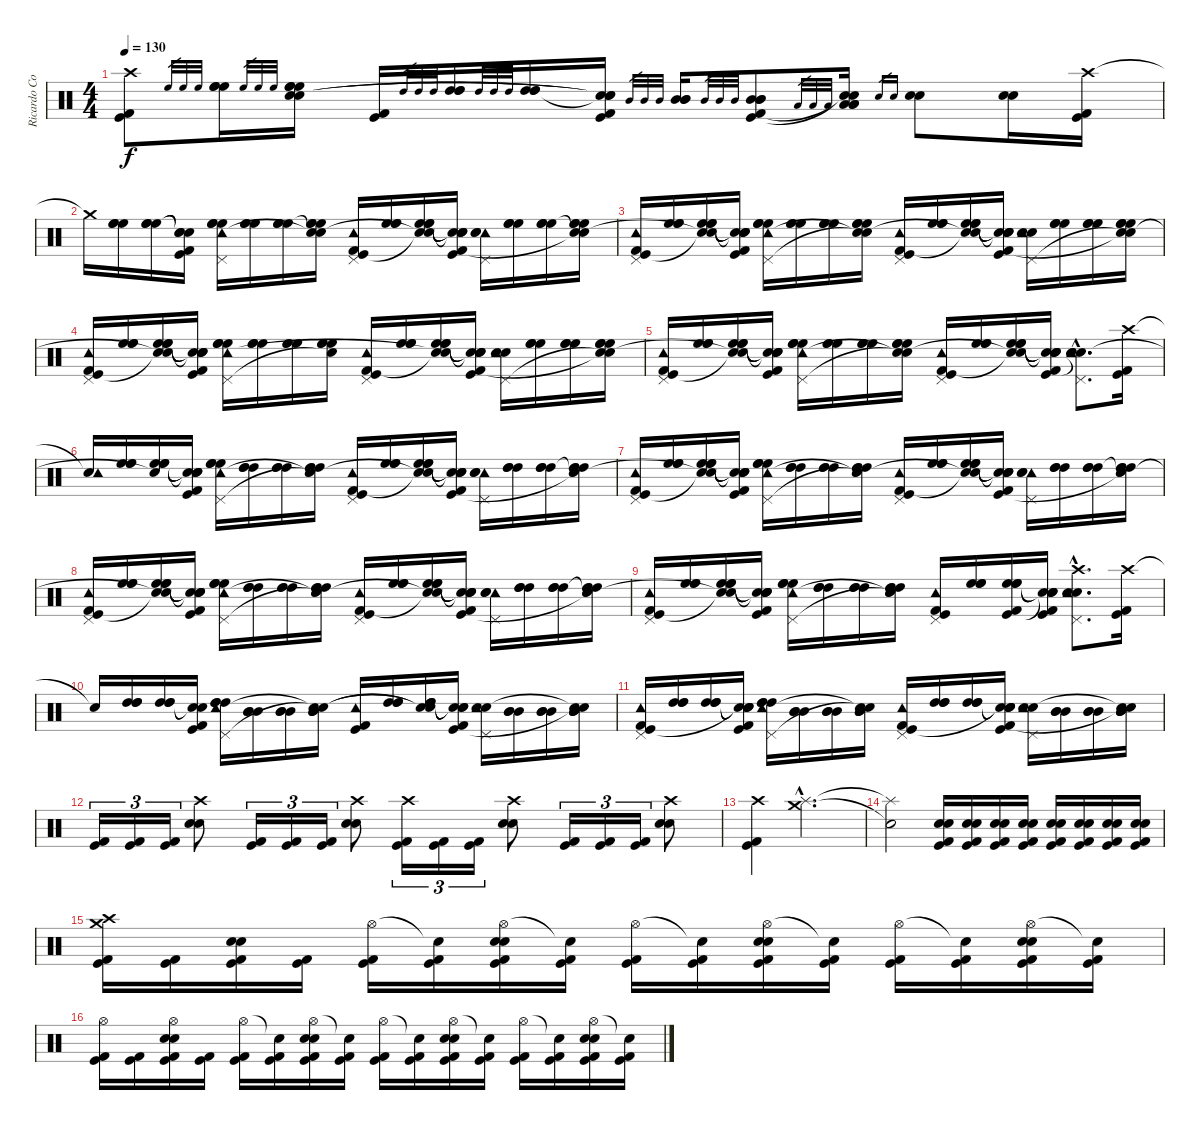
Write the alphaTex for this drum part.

\track ("Ricardo Confessori" "Ricardo Co") {instrument percussion}
\staff {score}
\articulation defaults
\ts (4 4)
\tempo 130
\clef neutral
\ks c
("Crash high (hit)" "Kick (hit)" "Kick (hit) 2").8{dy f} "High Floor Tom (hit)".32{gr} "High Floor Tom (hit)".32{gr} "High Floor Tom (hit)".32{gr} ("High Floor Tom (hit)" "High Floor Tom (hit)" "High Floor Tom (hit)").16 "High Floor Tom (hit)".32{gr} "High Floor Tom (hit)".32{gr} "High Floor Tom (hit)".32{gr} ("High Floor Tom (hit)" "High Floor Tom (hit)" "High Floor Tom (hit)" "Snare (hit)" "Snare (hit)").16 ("Kick (hit) 2" "Kick (hit)").16 "High Tom (hit)".32{gr} "High Tom (hit)".32{gr} "High Tom (hit)".32{gr} ("High Tom (hit)" "High Tom (hit)" "High Tom (hit)").16 "High Tom (hit)".32{gr} "High Tom (hit)".32{gr} "High Tom (hit)".32{gr} ("High Tom (hit)" "High Tom (hit)" "High Tom (hit)").16 ("Kick (hit) 2" "Kick (hit)" "Snare (hit)"{t} "Snare (hit)"{t} "Snare (hit)"{t}).16 "Mid Tom (hit)".32{gr} "Mid Tom (hit)".32{gr} "Mid Tom (hit)".32{gr} ("Mid Tom (hit)" "Mid Tom (hit)" "Mid Tom (hit)").16 "Mid Tom (hit)".32{gr} "Mid Tom (hit)".32{gr} "Mid Tom (hit)".32{gr} ("Mid Tom (hit)" "Mid Tom (hit)" "Mid Tom (hit)" "Kick (hit) 2" "Kick (hit)").8 "Low Tom (hit)".32{gr} "Low Tom (hit)".32{gr} "Low Tom (hit)".32{gr} ("Low Tom (hit)" "Low Tom (hit)" "Low Tom (hit)" "Snare (hit)"{t} "Snare (hit)"{t}).16 "Electric Snare (hit)".16{gr} "Snare (hit) 2".16{gr} ("Electric Snare (hit)" "Snare (hit) 2").8 ("Electric Snare (hit)" "Snare (hit) 2").16 ("Crash high (hit)" "Kick (hit)" "Kick (hit) 2").16 |
"Crash medium (hit)"{t}.16 ("High Floor Tom (hit)" "High Floor Tom (hit)" "High Floor Tom (hit)").16 ("High Floor Tom (hit)" "High Floor Tom (hit)" "High Floor Tom (hit)").16 ("Snare (hit)"{t} "Snare (hit)"{t} "Snare (hit)"{t} "Kick (hit) 2" "Kick (hit)").16 ("Pedal Hi-Hat (hit)" "High Floor Tom (hit)" "High Floor Tom (hit)" "High Floor Tom (hit)" "Tambourine (hit)").16 ("High Floor Tom (hit)" "High Floor Tom (hit)" "High Floor Tom (hit)").16 ("High Floor Tom (hit)" "High Floor Tom (hit)" "High Floor Tom (hit)").16 ("Snare (hit)"{t} "High Floor Tom (hit)" "High Floor Tom (hit)" "High Floor Tom (hit)" "Snare (hit)"{t}).16 ("Tambourine (hit)" "Pedal Hi-Hat (hit)" "Kick (hit) 2" "Kick (hit)").16 ("High Floor Tom (hit)" "High Floor Tom (hit)" "High Floor Tom (hit)").16 ("High Floor Tom (hit)" "High Floor Tom (hit)" "High Floor Tom (hit)" "Snare (hit)"{t} "Snare (hit)"{t}).16 ("Snare (hit)"{t} "Snare (hit)"{t} "Snare (hit)"{t} "Snare (hit)"{t} "Kick (hit) 2" "Kick (hit)").16 ("Tambourine (hit)" "Electric Snare (hit)" "Snare (hit) 2" "Pedal Hi-Hat (hit)").16 ("High Floor Tom (hit)" "High Floor Tom (hit)" "High Floor Tom (hit)").16 ("High Floor Tom (hit)" "High Floor Tom (hit)" "High Floor Tom (hit)").16 ("Snare (hit)"{t} "High Floor Tom (hit)" "High Floor Tom (hit)" "High Floor Tom (hit)" "Snare (hit)"{t}).16 |
("Pedal Hi-Hat (hit)" "Tambourine (hit)" "Kick (hit) 2" "Kick (hit)").16 ("High Floor Tom (hit)" "High Floor Tom (hit)" "High Floor Tom (hit)").16 ("High Floor Tom (hit)" "High Floor Tom (hit)" "High Floor Tom (hit)" "Snare (hit)"{t} "Snare (hit)"{t}).16 ("Snare (hit)"{t} "Snare (hit)"{t} "Snare (hit)"{t} "Snare (hit)"{t} "Kick (hit)" "Kick (hit) 2").16 ("High Floor Tom (hit)" "High Floor Tom (hit)" "High Floor Tom (hit)" "Tambourine (hit)" "Pedal Hi-Hat (hit)").16 ("High Floor Tom (hit)" "High Floor Tom (hit)" "High Floor Tom (hit)").16 ("High Floor Tom (hit)" "High Floor Tom (hit)" "High Floor Tom (hit)").16 ("High Floor Tom (hit)" "High Floor Tom (hit)" "High Floor Tom (hit)" "Snare (hit)"{t} "Snare (hit)"{t}).16 ("Pedal Hi-Hat (hit)" "Tambourine (hit)" "Kick (hit)" "Kick (hit) 2").16 ("High Floor Tom (hit)" "High Floor Tom (hit)" "High Floor Tom (hit)").16 ("High Floor Tom (hit)" "High Floor Tom (hit)" "High Floor Tom (hit)" "Snare (hit)"{t} "Snare (hit)"{t}).16 ("Snare (hit)"{t} "Snare (hit)"{t} "Snare (hit)"{t} "Snare (hit)"{t} "Kick (hit) 2" "Kick (hit)").16 ("Electric Snare (hit)" "Snare (hit) 2" "Tambourine (hit)" "Pedal Hi-Hat (hit)").16 ("High Floor Tom (hit)" "High Floor Tom (hit)" "High Floor Tom (hit)").16 ("High Floor Tom (hit)" "High Floor Tom (hit)" "High Floor Tom (hit)").16 ("High Floor Tom (hit)" "High Floor Tom (hit)" "High Floor Tom (hit)" "Snare (hit)"{t} "Snare (hit)"{t}).16 |
("Pedal Hi-Hat (hit)" "Tambourine (hit)" "Kick (hit) 2" "Kick (hit)").16 ("High Floor Tom (hit)" "High Floor Tom (hit)" "High Floor Tom (hit)").16 ("High Floor Tom (hit)" "High Floor Tom (hit)" "High Floor Tom (hit)" "Snare (hit)"{t} "Snare (hit)"{t}).16 ("Snare (hit)"{t} "Snare (hit)"{t} "Snare (hit)"{t} "Snare (hit)"{t} "Kick (hit)" "Kick (hit) 2").16 ("High Floor Tom (hit)" "High Floor Tom (hit)" "High Floor Tom (hit)" "Pedal Hi-Hat (hit)" "Tambourine (hit)").16 ("High Floor Tom (hit)" "High Floor Tom (hit)" "High Floor Tom (hit)").16 ("High Floor Tom (hit)" "High Floor Tom (hit)" "High Floor Tom (hit)").16 ("High Floor Tom (hit)" "High Floor Tom (hit)" "High Floor Tom (hit)" "Snare (hit)"{t}).16 ("Pedal Hi-Hat (hit)" "Tambourine (hit)" "Kick (hit)" "Kick (hit) 2").16 ("High Floor Tom (hit)" "High Floor Tom (hit)" "High Floor Tom (hit)").16 ("High Floor Tom (hit)" "High Floor Tom (hit)" "High Floor Tom (hit)" "Snare (hit)"{t} "Snare (hit)"{t}).16 ("Snare (hit)"{t} "Snare (hit)"{t} "Snare (hit)"{t} "Snare (hit)"{t} "Kick (hit) 2" "Kick (hit)").16 ("Electric Snare (hit)" "Snare (hit) 2" "Tambourine (hit)" "Pedal Hi-Hat (hit)").16 ("High Floor Tom (hit)" "High Floor Tom (hit)" "High Floor Tom (hit)").16 ("High Floor Tom (hit)" "High Floor Tom (hit)" "High Floor Tom (hit)").16 ("High Floor Tom (hit)" "High Floor Tom (hit)" "High Floor Tom (hit)" "Snare (hit)"{t} "Snare (hit)"{t}).16 |
("Pedal Hi-Hat (hit)" "Tambourine (hit)" "Kick (hit) 2" "Kick (hit)").16 ("High Floor Tom (hit)" "High Floor Tom (hit)" "High Floor Tom (hit)").16 ("High Floor Tom (hit)" "High Floor Tom (hit)" "High Floor Tom (hit)" "Snare (hit)"{t} "Snare (hit)"{t}).16 ("Snare (hit)"{t} "Snare (hit)"{t} "Snare (hit)"{t} "Snare (hit)"{t} "Kick (hit)" "Kick (hit) 2").16 ("High Floor Tom (hit)" "High Floor Tom (hit)" "High Floor Tom (hit)" "Tambourine (hit)" "Pedal Hi-Hat (hit)").16 ("High Floor Tom (hit)" "High Floor Tom (hit)" "High Floor Tom (hit)").16 ("High Floor Tom (hit)" "High Floor Tom (hit)" "High Floor Tom (hit)").16 ("High Floor Tom (hit)" "High Floor Tom (hit)" "High Floor Tom (hit)" "Snare (hit)"{t} "Snare (hit)"{t}).16 ("Pedal Hi-Hat (hit)" "Tambourine (hit)" "Kick (hit)" "Kick (hit) 2").16 ("High Floor Tom (hit)" "High Floor Tom (hit)" "High Floor Tom (hit)").16 ("High Floor Tom (hit)" "High Floor Tom (hit)" "High Floor Tom (hit)" "Snare (hit)"{t} "Snare (hit)"{t}).16 ("Snare (hit)"{t} "Snare (hit)"{t} "Snare (hit)"{t} "Snare (hit)"{t} "Kick (hit) 2" "Kick (hit)").16 ("Electric Snare (hit)"{hac} "Snare (hit) 2"{hac} "Pedal Hi-Hat (hit)"{hac} "Tambourine (hit)"{hac} "Snare (hit)"{hac t}).8{d} ("Crash high (hit)" "Kick (hit) 2" "Kick (hit)").16 |
("Snare (hit)"{t} "Tambourine (hit)").16 ("High Floor Tom (hit)" "High Floor Tom (hit)" "High Floor Tom (hit)").16 ("High Floor Tom (hit)" "High Floor Tom (hit)" "High Floor Tom (hit)" "Snare (hit)"{t}).16 ("Snare (hit)"{t} "Snare (hit)"{t} "Snare (hit)"{t} "Snare (hit)"{t} "Kick (hit)" "Kick (hit) 2").16 ("High Floor Tom (hit)" "High Floor Tom (hit)" "High Floor Tom (hit)" "Tambourine (hit)" "Pedal Hi-Hat (hit)").16 ("High Tom (hit)" "High Tom (hit)" "High Tom (hit)").16 ("High Tom (hit)" "High Tom (hit)" "High Tom (hit)").16 ("High Tom (hit)" "High Tom (hit)" "High Tom (hit)" "Snare (hit)"{t} "Snare (hit)"{t}).16 ("Pedal Hi-Hat (hit)" "Tambourine (hit)" "Kick (hit)" "Kick (hit) 2").16 ("High Floor Tom (hit)" "High Floor Tom (hit)" "High Floor Tom (hit)").16 ("High Floor Tom (hit)" "High Floor Tom (hit)" "High Floor Tom (hit)" "Snare (hit)"{t} "Snare (hit)"{t}).16 ("Snare (hit)"{t} "Snare (hit)"{t} "Snare (hit)"{t} "Snare (hit)"{t} "Kick (hit)" "Kick (hit) 2").16 ("Tambourine (hit)" "Electric Snare (hit)" "Snare (hit) 2" "Pedal Hi-Hat (hit)").16 ("High Tom (hit)" "High Tom (hit)" "High Tom (hit)").16 ("High Tom (hit)" "High Tom (hit)" "High Tom (hit)").16 ("Snare (hit)"{t} "High Tom (hit)" "High Tom (hit)" "High Tom (hit)" "Snare (hit)"{t}).16 |
("Pedal Hi-Hat (hit)" "Tambourine (hit)" "Kick (hit) 2" "Kick (hit)").16 ("High Floor Tom (hit)" "High Floor Tom (hit)" "High Floor Tom (hit)").16 ("High Floor Tom (hit)" "High Floor Tom (hit)" "High Floor Tom (hit)" "Snare (hit)"{t} "Snare (hit)"{t}).16 ("Snare (hit)"{t} "Snare (hit)"{t} "Snare (hit)"{t} "Snare (hit)"{t} "Kick (hit)" "Kick (hit) 2").16 ("High Floor Tom (hit)" "High Floor Tom (hit)" "High Floor Tom (hit)" "Tambourine (hit)" "Pedal Hi-Hat (hit)").16 ("High Tom (hit)" "High Tom (hit)" "High Tom (hit)").16 ("High Tom (hit)" "High Tom (hit)" "High Tom (hit)").16 ("High Tom (hit)" "High Tom (hit)" "High Tom (hit)" "Snare (hit)"{t} "Snare (hit)"{t}).16 ("Pedal Hi-Hat (hit)" "Tambourine (hit)" "Kick (hit)" "Kick (hit) 2").16 ("High Floor Tom (hit)" "High Floor Tom (hit)" "High Floor Tom (hit)").16 ("High Floor Tom (hit)" "High Floor Tom (hit)" "High Floor Tom (hit)" "Snare (hit)"{t} "Snare (hit)"{t}).16 ("Snare (hit)"{t} "Snare (hit)"{t} "Snare (hit)"{t} "Snare (hit)"{t} "Kick (hit)" "Kick (hit) 2").16 ("Tambourine (hit)" "Electric Snare (hit)" "Snare (hit) 2" "Pedal Hi-Hat (hit)").16 ("High Tom (hit)" "High Tom (hit)" "High Tom (hit)").16 ("High Tom (hit)" "High Tom (hit)" "High Tom (hit)").16 ("Snare (hit)"{t} "High Tom (hit)" "High Tom (hit)" "High Tom (hit)" "Snare (hit)"{t}).16 |
("Pedal Hi-Hat (hit)" "Tambourine (hit)" "Kick (hit) 2" "Kick (hit)").16 ("High Floor Tom (hit)" "High Floor Tom (hit)" "High Floor Tom (hit)").16 ("High Floor Tom (hit)" "High Floor Tom (hit)" "High Floor Tom (hit)" "Snare (hit)"{t} "Snare (hit)"{t}).16 ("Snare (hit)"{t} "Snare (hit)"{t} "Snare (hit)"{t} "Snare (hit)"{t} "Kick (hit)" "Kick (hit) 2").16 ("High Floor Tom (hit)" "High Floor Tom (hit)" "High Floor Tom (hit)" "Tambourine (hit)" "Pedal Hi-Hat (hit)").16 ("High Tom (hit)" "High Tom (hit)" "High Tom (hit)").16 ("High Tom (hit)" "High Tom (hit)" "High Tom (hit)").16 ("High Tom (hit)" "High Tom (hit)" "High Tom (hit)" "Snare (hit)"{t} "Snare (hit)"{t}).16 ("Pedal Hi-Hat (hit)" "Tambourine (hit)" "Kick (hit)" "Kick (hit) 2").16 ("High Floor Tom (hit)" "High Floor Tom (hit)" "High Floor Tom (hit)").16 ("High Floor Tom (hit)" "High Floor Tom (hit)" "High Floor Tom (hit)" "Snare (hit)"{t} "Snare (hit)"{t}).16 ("Snare (hit)"{t} "Snare (hit)"{t} "Snare (hit)"{t} "Snare (hit)"{t} "Kick (hit)" "Kick (hit) 2").16 ("Tambourine (hit)" "Electric Snare (hit)" "Snare (hit) 2" "Pedal Hi-Hat (hit)").16 ("High Tom (hit)" "High Tom (hit)" "High Tom (hit)").16 ("High Tom (hit)" "High Tom (hit)" "High Tom (hit)").16 ("Snare (hit)"{t} "High Tom (hit)" "High Tom (hit)" "High Tom (hit)" "Snare (hit)"{t}).16 |
("Tambourine (hit)" "Pedal Hi-Hat (hit)" "Kick (hit) 2" "Kick (hit)").16 ("High Floor Tom (hit)" "High Floor Tom (hit)" "High Floor Tom (hit)").16 ("High Floor Tom (hit)" "High Floor Tom (hit)" "High Floor Tom (hit)" "Snare (hit)"{t} "Snare (hit)"{t}).16 ("Snare (hit)"{t} "Snare (hit)"{t} "Snare (hit)"{t} "Snare (hit)"{t} "Kick (hit)" "Kick (hit) 2").16 ("High Floor Tom (hit)" "High Floor Tom (hit)" "High Floor Tom (hit)" "Pedal Hi-Hat (hit)" "Tambourine (hit)").16 ("High Tom (hit)" "High Tom (hit)" "High Tom (hit)").16 ("High Tom (hit)" "High Tom (hit)" "High Tom (hit)").16 ("High Tom (hit)" "High Tom (hit)" "High Tom (hit)" "Snare (hit)"{t} "Snare (hit)"{t}).16 ("Tambourine (hit)" "Pedal Hi-Hat (hit)" "Kick (hit) 2" "Kick (hit)").16 ("High Floor Tom (hit)" "High Floor Tom (hit)" "High Floor Tom (hit)").16 ("High Floor Tom (hit)" "High Floor Tom (hit)" "High Floor Tom (hit)" "Kick (hit)" "Kick (hit) 2").16 ("Snare (hit)"{t} "Snare (hit)"{t} "Snare (hit)"{t} "Snare (hit)"{t} "Kick (hit)" "Kick (hit) 2").16 ("Crash high (hit)"{hac} "Electric Snare (hit)"{hac} "Snare (hit) 2"{hac} "Pedal Hi-Hat (hit)"{hac} "Tambourine (hit)"{hac}).8{d} ("Crash high (hit)" "Kick (hit) 2" "Kick (hit)").16 |
"Snare (hit)"{t}.16 ("High Tom (hit)" "High Tom (hit)" "High Tom (hit)").16 ("High Tom (hit)" "High Tom (hit)" "High Tom (hit)").16 ("Snare (hit)"{t} "Snare (hit)"{t} "Kick (hit)" "Kick (hit) 2").16 ("High Tom (hit)" "High Tom (hit)" "High Tom (hit)" "Pedal Hi-Hat (hit)" "Tambourine (hit)").16 ("Mid Tom (hit)" "Mid Tom (hit)" "Mid Tom (hit)").16 ("Mid Tom (hit)" "Mid Tom (hit)" "Mid Tom (hit)").16 ("Mid Tom (hit)" "Mid Tom (hit)" "Mid Tom (hit)" "Snare (hit)"{t} "Snare (hit)"{t}).16 ("Tambourine (hit)" "Kick (hit)" "Kick (hit) 2").16 ("High Tom (hit)" "High Tom (hit)" "High Tom (hit)").16 ("High Tom (hit)" "High Tom (hit)" "High Tom (hit)" "Snare (hit)"{t} "Snare (hit)"{t}).16 ("Snare (hit)"{t} "Snare (hit)"{t} "Snare (hit)"{t} "Kick (hit) 2" "Kick (hit)").16 ("Electric Snare (hit)" "Snare (hit) 2" "Pedal Hi-Hat (hit)" "Tambourine (hit)").16 ("Mid Tom (hit)" "Mid Tom (hit)" "Mid Tom (hit)").16 ("Mid Tom (hit)" "Mid Tom (hit)" "Mid Tom (hit)").16 ("Mid Tom (hit)" "Mid Tom (hit)" "Mid Tom (hit)" "Snare (hit)"{t} "Snare (hit)"{t}).16 |
("Tambourine (hit)" "Pedal Hi-Hat (hit)" "Kick (hit) 2" "Kick (hit)").16 ("High Tom (hit)" "High Tom (hit)" "High Tom (hit)").16 ("High Tom (hit)" "High Tom (hit)" "High Tom (hit)").16 ("Snare (hit)"{t} "Snare (hit)"{t} "Snare (hit)"{t} "Snare (hit)"{t} "Kick (hit) 2" "Kick (hit)").16 ("High Tom (hit)" "High Tom (hit)" "High Tom (hit)" "Pedal Hi-Hat (hit)" "Tambourine (hit)").16 ("Mid Tom (hit)" "Mid Tom (hit)" "Mid Tom (hit)").16 ("Mid Tom (hit)" "Mid Tom (hit)" "Mid Tom (hit)").16 ("Mid Tom (hit)" "Mid Tom (hit)" "Mid Tom (hit)" "Snare (hit)"{t} "Snare (hit)"{t}).16 ("Tambourine (hit)" "Pedal Hi-Hat (hit)" "Kick (hit) 2" "Kick (hit)").16 ("High Tom (hit)" "High Tom (hit)" "High Tom (hit)").16 ("High Tom (hit)" "High Tom (hit)" "High Tom (hit)").16 ("Snare (hit)"{t} "Snare (hit)"{t} "Snare (hit)"{t} "Snare (hit)"{t} "Kick (hit) 2" "Kick (hit)").16 ("Electric Snare (hit)" "Snare (hit) 2" "Pedal Hi-Hat (hit)" "Tambourine (hit)").16 ("Mid Tom (hit)" "Mid Tom (hit)" "Mid Tom (hit)").16 ("Mid Tom (hit)" "Mid Tom (hit)" "Mid Tom (hit)").16 ("Mid Tom (hit)" "Mid Tom (hit)" "Mid Tom (hit)" "Snare (hit)"{t} "Snare (hit)"{t}).16 |
("Kick (hit)" "Kick (hit) 2").16{tu (3 2)} ("Kick (hit)" "Kick (hit) 2").16{tu (3 2)} ("Kick (hit)" "Kick (hit) 2").16{tu (3 2)} ("Crash high (hit)" "Electric Snare (hit)" "Snare (hit) 2").8 ("Kick (hit)" "Kick (hit) 2").16{tu (3 2)} ("Kick (hit)" "Kick (hit) 2").16{tu (3 2)} ("Kick (hit)" "Kick (hit) 2").16{tu (3 2)} ("Crash high (hit)" "Electric Snare (hit)" "Snare (hit) 2").8 ("Crash high (hit)" "Kick (hit)" "Kick (hit) 2").16{tu (3 2)} ("Kick (hit)" "Kick (hit) 2").16{tu (3 2)} ("Kick (hit)" "Kick (hit) 2").16{tu (3 2)} ("Crash high (hit)" "Electric Snare (hit)" "Snare (hit) 2").8 ("Kick (hit)" "Kick (hit) 2").16{tu (3 2)} ("Kick (hit)" "Kick (hit) 2").16{tu (3 2)} ("Kick (hit)" "Kick (hit) 2").16{tu (3 2)} ("Crash high (hit)" "Electric Snare (hit)" "Snare (hit) 2").8 |
("Crash high (hit)" "Kick (hit)" "Kick (hit) 2").4 ("Splash (hit)"{hac} "Crash medium (hit)"{hac}).2{d} |
("Splash (hit)"{t} "Snare (hit)"{t}).2 ("Electric Snare (hit)" "Snare (hit) 2" "Kick (hit)" "Kick (hit) 2").16 ("Electric Snare (hit)" "Snare (hit) 2" "Kick (hit)" "Kick (hit) 2").16 ("Electric Snare (hit)" "Snare (hit) 2" "Kick (hit)" "Kick (hit) 2").16 ("Electric Snare (hit)" "Snare (hit) 2" "Kick (hit)" "Kick (hit) 2").16 ("Electric Snare (hit)" "Snare (hit) 2" "Kick (hit)" "Kick (hit) 2").16 ("Electric Snare (hit)" "Snare (hit) 2" "Kick (hit)" "Kick (hit) 2").16 ("Electric Snare (hit)" "Snare (hit) 2" "Kick (hit)" "Kick (hit) 2").16 ("Electric Snare (hit)" "Snare (hit) 2" "Kick (hit)" "Kick (hit) 2").16 |
("Crash high (hit)" "Crash medium (hit)" "Kick (hit)" "Kick (hit) 2").16 ("Kick (hit)" "Kick (hit) 2").16 ("Electric Snare (hit)" "Snare (hit) 2" "Kick (hit)" "Kick (hit) 2").16 ("Kick (hit)" "Kick (hit) 2").16 ("Hi-Hat (open)" "Kick (hit)" "Kick (hit) 2").16 ("Snare (hit)"{t} "Kick (hit)" "Kick (hit) 2").16 ("Hi-Hat (open)" "Electric Snare (hit)" "Snare (hit) 2" "Kick (hit)" "Kick (hit) 2").16 ("Snare (hit)"{t} "Kick (hit)" "Kick (hit) 2").16 ("Hi-Hat (open)" "Kick (hit)" "Kick (hit) 2").16 ("Snare (hit)"{t} "Kick (hit)" "Kick (hit) 2").16 ("Hi-Hat (open)" "Electric Snare (hit)" "Snare (hit) 2" "Kick (hit)" "Kick (hit) 2").16 ("Snare (hit)"{t} "Kick (hit)" "Kick (hit) 2").16 ("Hi-Hat (open)" "Kick (hit)" "Kick (hit) 2").16 ("Snare (hit)"{t} "Kick (hit)" "Kick (hit) 2").16 ("Hi-Hat (open)" "Electric Snare (hit)" "Snare (hit) 2" "Kick (hit)" "Kick (hit) 2").16 ("Snare (hit)"{t} "Kick (hit)" "Kick (hit) 2").16 |
("Hi-Hat (open)" "Kick (hit)" "Kick (hit) 2").16 ("Kick (hit)" "Kick (hit) 2").16 ("Hi-Hat (open)" "Electric Snare (hit)" "Snare (hit) 2" "Kick (hit)" "Kick (hit) 2").16 ("Kick (hit)" "Kick (hit) 2").16 ("Hi-Hat (open)" "Kick (hit)" "Kick (hit) 2").16 ("Snare (hit)"{t} "Kick (hit)" "Kick (hit) 2").16 ("Hi-Hat (open)" "Electric Snare (hit)" "Snare (hit) 2" "Kick (hit)" "Kick (hit) 2").16 ("Snare (hit)"{t} "Kick (hit)" "Kick (hit) 2").16 ("Hi-Hat (open)" "Kick (hit)" "Kick (hit) 2").16 ("Snare (hit)"{t} "Kick (hit)" "Kick (hit) 2").16 ("Hi-Hat (open)" "Electric Snare (hit)" "Snare (hit) 2" "Kick (hit)" "Kick (hit) 2").16 ("Snare (hit)"{t} "Kick (hit)" "Kick (hit) 2").16 ("Hi-Hat (open)" "Kick (hit)" "Kick (hit) 2").16 ("Snare (hit)"{t} "Kick (hit)" "Kick (hit) 2").16 ("Hi-Hat (open)" "Electric Snare (hit)" "Snare (hit) 2" "Kick (hit)" "Kick (hit) 2").16 ("Snare (hit)"{t} "Kick (hit)" "Kick (hit) 2").16
